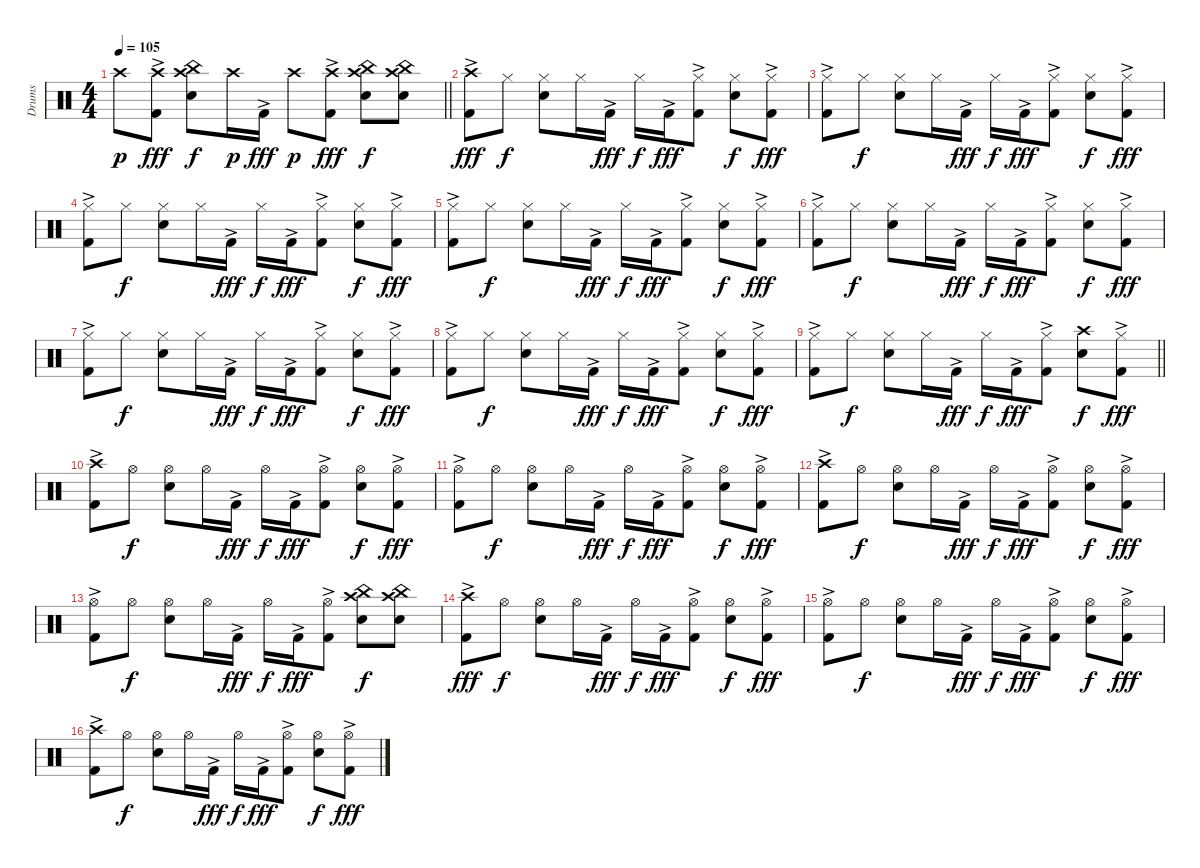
\track ("Drums" "Drums") {instrument percussion}
\staff {score}
\articulation defaults
\ts (4 4)
\tempo 105
\clef neutral
\barLineRight lightlight
\ks aminor "Crash high (hit)".8{dy p}
("Crash high (hit)" "Kick (hit) 2"{ac}).8{dy fff} ("Crash high (hit)" "China (hit)" "Snare (hit) 2").8{dy f} "Crash high (hit)".16{dy p} "Kick (hit) 2"{ac}.16{dy fff} "Crash high (hit)".8{dy p} ("Crash high (hit)" "Kick (hit) 2"{ac}).8{dy fff} ("Crash high (hit)" "China (hit)" "Snare (hit) 2").8{dy f} ("Crash high (hit)" "China (hit)" "Snare (hit) 2").8 |
("Crash high (hit)" "Kick (hit) 2"{ac}).8{dy fff} "Hi-Hat (closed)".8{dy f} ("Hi-Hat (closed)" "Snare (hit) 2").8 "Hi-Hat (closed)".16 "Kick (hit) 2"{ac}.16{dy fff} "Hi-Hat (closed)".16{dy f} "Kick (hit) 2"{ac}.16{dy fff} ("Hi-Hat (closed)" "Kick (hit) 2"{ac}).8 ("Hi-Hat (closed)" "Snare (hit) 2").8{dy f} ("Hi-Hat (closed)" "Kick (hit) 2"{ac}).8{dy fff} |
("Hi-Hat (closed)" "Kick (hit) 2"{ac}).8 "Hi-Hat (closed)".8{dy f} ("Hi-Hat (closed)" "Snare (hit) 2").8 "Hi-Hat (closed)".16 "Kick (hit) 2"{ac}.16{dy fff} "Hi-Hat (closed)".16{dy f} "Kick (hit) 2"{ac}.16{dy fff} ("Hi-Hat (closed)" "Kick (hit) 2"{ac}).8 ("Hi-Hat (closed)" "Snare (hit) 2").8{dy f} ("Hi-Hat (closed)" "Kick (hit) 2"{ac}).8{dy fff} |
("Hi-Hat (closed)" "Kick (hit) 2"{ac}).8 "Hi-Hat (closed)".8{dy f} ("Hi-Hat (closed)" "Snare (hit) 2").8 "Hi-Hat (closed)".16 "Kick (hit) 2"{ac}.16{dy fff} "Hi-Hat (closed)".16{dy f} "Kick (hit) 2"{ac}.16{dy fff} ("Hi-Hat (closed)" "Kick (hit) 2"{ac}).8 ("Hi-Hat (closed)" "Snare (hit) 2").8{dy f} ("Hi-Hat (closed)" "Kick (hit) 2"{ac}).8{dy fff} |
("Hi-Hat (closed)" "Kick (hit) 2"{ac}).8 "Hi-Hat (closed)".8{dy f} ("Hi-Hat (closed)" "Snare (hit) 2").8 "Hi-Hat (closed)".16 "Kick (hit) 2"{ac}.16{dy fff} "Hi-Hat (closed)".16{dy f} "Kick (hit) 2"{ac}.16{dy fff} ("Hi-Hat (closed)" "Kick (hit) 2"{ac}).8 ("Hi-Hat (closed)" "Snare (hit) 2").8{dy f} ("Hi-Hat (closed)" "Kick (hit) 2"{ac}).8{dy fff} |
("Hi-Hat (closed)" "Kick (hit) 2"{ac}).8 "Hi-Hat (closed)".8{dy f} ("Hi-Hat (closed)" "Snare (hit) 2").8 "Hi-Hat (closed)".16 "Kick (hit) 2"{ac}.16{dy fff} "Hi-Hat (closed)".16{dy f} "Kick (hit) 2"{ac}.16{dy fff} ("Hi-Hat (closed)" "Kick (hit) 2"{ac}).8 ("Hi-Hat (closed)" "Snare (hit) 2").8{dy f} ("Hi-Hat (closed)" "Kick (hit) 2"{ac}).8{dy fff} |
("Hi-Hat (closed)" "Kick (hit) 2"{ac}).8 "Hi-Hat (closed)".8{dy f} ("Hi-Hat (closed)" "Snare (hit) 2").8 "Hi-Hat (closed)".16 "Kick (hit) 2"{ac}.16{dy fff} "Hi-Hat (closed)".16{dy f} "Kick (hit) 2"{ac}.16{dy fff} ("Hi-Hat (closed)" "Kick (hit) 2"{ac}).8 ("Hi-Hat (closed)" "Snare (hit) 2").8{dy f} ("Hi-Hat (closed)" "Kick (hit) 2"{ac}).8{dy fff} |
("Hi-Hat (closed)" "Kick (hit) 2"{ac}).8 "Hi-Hat (closed)".8{dy f} ("Hi-Hat (closed)" "Snare (hit) 2").8 "Hi-Hat (closed)".16 "Kick (hit) 2"{ac}.16{dy fff} "Hi-Hat (closed)".16{dy f} "Kick (hit) 2"{ac}.16{dy fff} ("Hi-Hat (closed)" "Kick (hit) 2"{ac}).8 ("Hi-Hat (closed)" "Snare (hit) 2").8{dy f} ("Hi-Hat (closed)" "Kick (hit) 2"{ac}).8{dy fff} |
\barLineRight lightlight
("Hi-Hat (closed)" "Kick (hit) 2"{ac}).8 "Hi-Hat (closed)".8{dy f} ("Hi-Hat (closed)" "Snare (hit) 2").8 "Hi-Hat (closed)".16 "Kick (hit) 2"{ac}.16{dy fff} "Hi-Hat (closed)".16{dy f} "Kick (hit) 2"{ac}.16{dy fff} ("Hi-Hat (closed)" "Kick (hit) 2"{ac}).8 ("Crash high (hit)" "Snare (hit) 2").8{dy f} ("Hi-Hat (closed)" "Kick (hit) 2"{ac}).8{dy fff} |
("Crash high (hit)" "Kick (hit) 2"{ac}).8 "Hi-Hat (open)".8{dy f} ("Hi-Hat (open)" "Snare (hit) 2").8 "Hi-Hat (open)".16 "Kick (hit) 2"{ac}.16{dy fff} "Hi-Hat (open)".16{dy f} "Kick (hit) 2"{ac}.16{dy fff} ("Hi-Hat (open)" "Kick (hit) 2"{ac}).8 ("Hi-Hat (open)" "Snare (hit) 2").8{dy f} ("Hi-Hat (open)" "Kick (hit) 2"{ac}).8{dy fff} |
("Hi-Hat (open)" "Kick (hit) 2"{ac}).8 "Hi-Hat (open)".8{dy f} ("Hi-Hat (open)" "Snare (hit) 2").8 "Hi-Hat (open)".16 "Kick (hit) 2"{ac}.16{dy fff} "Hi-Hat (open)".16{dy f} "Kick (hit) 2"{ac}.16{dy fff} ("Hi-Hat (open)" "Kick (hit) 2"{ac}).8 ("Hi-Hat (open)" "Snare (hit) 2").8{dy f} ("Hi-Hat (open)" "Kick (hit) 2"{ac}).8{dy fff} |
("Crash high (hit)" "Kick (hit) 2"{ac}).8 "Hi-Hat (open)".8{dy f} ("Hi-Hat (open)" "Snare (hit) 2").8 "Hi-Hat (open)".16 "Kick (hit) 2"{ac}.16{dy fff} "Hi-Hat (open)".16{dy f} "Kick (hit) 2"{ac}.16{dy fff} ("Hi-Hat (open)" "Kick (hit) 2"{ac}).8 ("Hi-Hat (open)" "Snare (hit) 2").8{dy f} ("Hi-Hat (open)" "Kick (hit) 2"{ac}).8{dy fff} |
("Hi-Hat (open)" "Kick (hit) 2"{ac}).8 "Hi-Hat (open)".8{dy f} ("Hi-Hat (open)" "Snare (hit) 2").8 "Hi-Hat (open)".16 "Kick (hit) 2"{ac}.16{dy fff} "Hi-Hat (open)".16{dy f} "Kick (hit) 2"{ac}.16{dy fff} ("Hi-Hat (open)" "Kick (hit) 2"{ac}).8 ("Crash high (hit)" "China (hit)" "Snare (hit) 2").8{dy f} ("Crash high (hit)" "China (hit)" "Snare (hit) 2").8 |
("Crash high (hit)" "Kick (hit) 2"{ac}).8{dy fff} "Hi-Hat (open)".8{dy f} ("Hi-Hat (open)" "Snare (hit) 2").8 "Hi-Hat (open)".16 "Kick (hit) 2"{ac}.16{dy fff} "Hi-Hat (open)".16{dy f} "Kick (hit) 2"{ac}.16{dy fff} ("Hi-Hat (open)" "Kick (hit) 2"{ac}).8 ("Hi-Hat (open)" "Snare (hit) 2").8{dy f} ("Hi-Hat (open)" "Kick (hit) 2"{ac}).8{dy fff} |
("Hi-Hat (open)" "Kick (hit) 2"{ac}).8 "Hi-Hat (open)".8{dy f} ("Hi-Hat (open)" "Snare (hit) 2").8 "Hi-Hat (open)".16 "Kick (hit) 2"{ac}.16{dy fff} "Hi-Hat (open)".16{dy f} "Kick (hit) 2"{ac}.16{dy fff} ("Hi-Hat (open)" "Kick (hit) 2"{ac}).8 ("Hi-Hat (open)" "Snare (hit) 2").8{dy f} ("Hi-Hat (open)" "Kick (hit) 2"{ac}).8{dy fff} |
("Crash high (hit)" "Kick (hit) 2"{ac}).8 "Hi-Hat (open)".8{dy f} ("Hi-Hat (open)" "Snare (hit) 2").8 "Hi-Hat (open)".16 "Kick (hit) 2"{ac}.16{dy fff} "Hi-Hat (open)".16{dy f} "Kick (hit) 2"{ac}.16{dy fff} ("Hi-Hat (open)" "Kick (hit) 2"{ac}).8 ("Hi-Hat (open)" "Snare (hit) 2").8{dy f} ("Hi-Hat (open)" "Kick (hit) 2"{ac}).8{dy fff}
